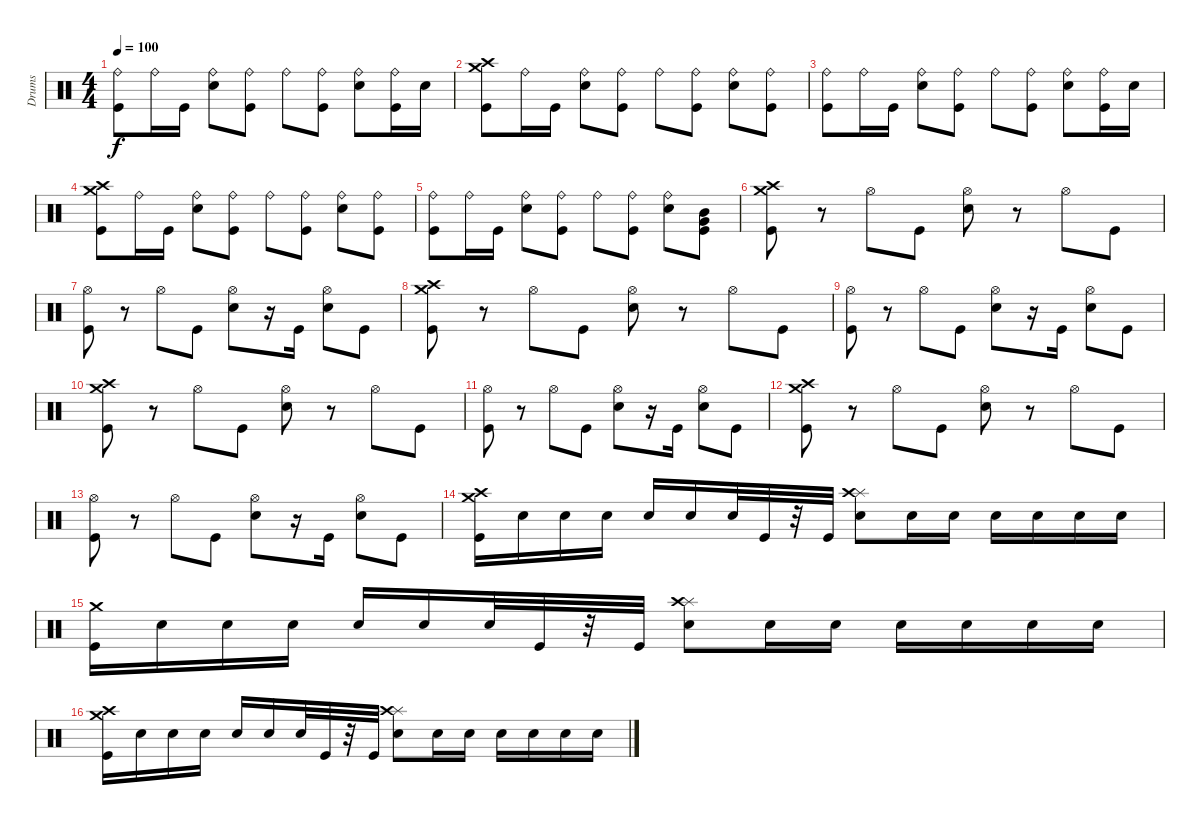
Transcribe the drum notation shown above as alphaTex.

\track ("Drums" "Drums") {instrument percussion}
\staff {score}
\articulation defaults
\ts (4 4)
\tempo 100
\clef neutral
\ks c
("Kick (hit)" "Ride (bell)").8{dy f} "Ride (bell)".16 "Kick (hit)".16 ("Electric Snare (hit)" "Ride (bell)").8 ("Kick (hit)" "Ride (bell)").8 "Ride (bell)".8 ("Kick (hit)" "Ride (bell)").8 ("Electric Snare (hit)" "Ride (bell)").8 ("Kick (hit)" "Ride (bell)").16 "Electric Snare (hit)".16 |
("Kick (hit)" "Crash medium (hit)" "Crash high (hit)").8 "Ride (bell)".16 "Kick (hit)".16 ("Electric Snare (hit)" "Ride (bell)").8 ("Kick (hit)" "Ride (bell)").8 "Ride (bell)".8 ("Kick (hit)" "Ride (bell)").8 ("Electric Snare (hit)" "Ride (bell)").8 ("Kick (hit)" "Ride (bell)").8 |
("Kick (hit)" "Ride (bell)").8 "Ride (bell)".16 "Kick (hit)".16 ("Electric Snare (hit)" "Ride (bell)").8 ("Kick (hit)" "Ride (bell)").8 "Ride (bell)".8 ("Kick (hit)" "Ride (bell)").8 ("Electric Snare (hit)" "Ride (bell)").8 ("Kick (hit)" "Ride (bell)").16 "Electric Snare (hit)".16 |
("Kick (hit)" "Crash high (hit)" "Crash medium (hit)").8 "Ride (bell)".16 "Kick (hit)".16 ("Electric Snare (hit)" "Ride (bell)").8 ("Kick (hit)" "Ride (bell)").8 "Ride (bell)".8 ("Kick (hit)" "Ride (bell)").8 ("Electric Snare (hit)" "Ride (bell)").8 ("Kick (hit)" "Ride (bell)").8 |
("Kick (hit)" "Ride (bell)").8 "Ride (bell)".16 "Kick (hit)".16 ("Electric Snare (hit)" "Ride (bell)").8 ("Kick (hit)" "Ride (bell)").8 "Ride (bell)".8 ("Kick (hit)" "Ride (bell)").8 ("Electric Snare (hit)" "Ride (bell)").8 ("Kick (hit)" "Very Low Tom (hit)" "Mid Tom (hit)").8 |
("Kick (hit)" "Crash medium (hit)" "Crash high (hit)").8 r.8 "Hi-Hat (open)".8 "Kick (hit)".8 ("Electric Snare (hit)" "Hi-Hat (open)").8 r.8 "Hi-Hat (open)".8 "Kick (hit)".8 |
("Kick (hit)" "Hi-Hat (open)").8 r.8 "Hi-Hat (open)".8 "Kick (hit)".8 ("Electric Snare (hit)" "Hi-Hat (open)").8 r.16 "Kick (hit)".16 ("Electric Snare (hit)" "Hi-Hat (open)").8 "Kick (hit)".8 |
("Kick (hit)" "Crash medium (hit)" "Crash high (hit)").8 r.8 "Hi-Hat (open)".8 "Kick (hit)".8 ("Electric Snare (hit)" "Hi-Hat (open)").8 r.8 "Hi-Hat (open)".8 "Kick (hit)".8 |
("Kick (hit)" "Hi-Hat (open)").8 r.8 "Hi-Hat (open)".8 "Kick (hit)".8 ("Electric Snare (hit)" "Hi-Hat (open)").8 r.16 "Kick (hit)".16 ("Electric Snare (hit)" "Hi-Hat (open)").8 "Kick (hit)".8 |
("Kick (hit)" "Crash medium (hit)" "Crash high (hit)").8 r.8 "Hi-Hat (open)".8 "Kick (hit)".8 ("Electric Snare (hit)" "Hi-Hat (open)").8 r.8 "Hi-Hat (open)".8 "Kick (hit)".8 |
("Kick (hit)" "Hi-Hat (open)").8 r.8 "Hi-Hat (open)".8 "Kick (hit)".8 ("Electric Snare (hit)" "Hi-Hat (open)").8 r.16 "Kick (hit)".16 ("Electric Snare (hit)" "Hi-Hat (open)").8 "Kick (hit)".8 |
("Kick (hit)" "Crash medium (hit)" "Crash high (hit)").8 r.8 "Hi-Hat (open)".8 "Kick (hit)".8 ("Electric Snare (hit)" "Hi-Hat (open)").8 r.8 "Hi-Hat (open)".8 "Kick (hit)".8 |
("Kick (hit)" "Hi-Hat (open)").8 r.8 "Hi-Hat (open)".8 "Kick (hit)".8 ("Electric Snare (hit)" "Hi-Hat (open)").8 r.16 "Kick (hit)".16 ("Electric Snare (hit)" "Hi-Hat (open)").8 "Kick (hit)".8 |
("Kick (hit)" "Crash medium (hit)" "Crash high (hit)").16 "Electric Snare (hit)".16 "Electric Snare (hit)".16 "Electric Snare (hit)".16 "Electric Snare (hit)".16 "Electric Snare (hit)".16 "Electric Snare (hit)".32 "Kick (hit)".32 r.32 "Kick (hit)".32 ("Electric Snare (hit)" "Splash (hit)" "Crash high (hit)").8 "Electric Snare (hit)".16 "Electric Snare (hit)".16 "Electric Snare (hit)".16 "Electric Snare (hit)".16 "Electric Snare (hit)".16 "Electric Snare (hit)".16 |
("Kick (hit)" "Crash medium (hit)").16 "Electric Snare (hit)".16 "Electric Snare (hit)".16 "Electric Snare (hit)".16 "Electric Snare (hit)".16 "Electric Snare (hit)".16 "Electric Snare (hit)".32 "Kick (hit)".32 r.32 "Kick (hit)".32 ("Electric Snare (hit)" "Splash (hit)" "Crash high (hit)").8 "Electric Snare (hit)".16 "Electric Snare (hit)".16 "Electric Snare (hit)".16 "Electric Snare (hit)".16 "Electric Snare (hit)".16 "Electric Snare (hit)".16 |
("Kick (hit)" "Crash medium (hit)" "Crash high (hit)").16 "Electric Snare (hit)".16 "Electric Snare (hit)".16 "Electric Snare (hit)".16 "Electric Snare (hit)".16 "Electric Snare (hit)".16 "Electric Snare (hit)".32 "Kick (hit)".32 r.32 "Kick (hit)".32 ("Electric Snare (hit)" "Splash (hit)" "Crash high (hit)").8 "Electric Snare (hit)".16 "Electric Snare (hit)".16 "Electric Snare (hit)".16 "Electric Snare (hit)".16 "Electric Snare (hit)".16 "Electric Snare (hit)".16
